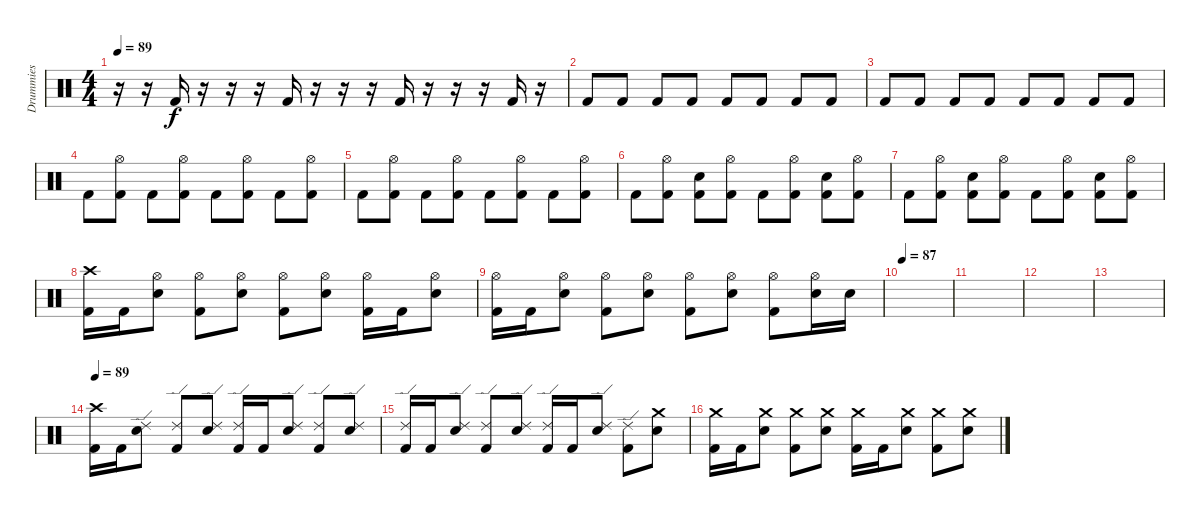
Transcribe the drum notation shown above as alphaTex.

\track ("Drummies" "Drummies") {instrument percussion}
\staff {score}
\articulation defaults
\ts (4 4)
\tempo 89
\clef neutral
\ks c
r.16{dy f} r.16 "Kick (hit) 2".16 r.16 r.16 r.16 "Kick (hit) 2".16 r.16 r.16 r.16 "Kick (hit) 2".16 r.16 r.16 r.16 "Kick (hit) 2".16 r.16 |
"Kick (hit) 2".8 "Kick (hit) 2".8 "Kick (hit) 2".8 "Kick (hit) 2".8 "Kick (hit) 2".8 "Kick (hit) 2".8 "Kick (hit) 2".8 "Kick (hit) 2".8 |
"Kick (hit) 2".8 "Kick (hit) 2".8 "Kick (hit) 2".8 "Kick (hit) 2".8 "Kick (hit) 2".8 "Kick (hit) 2".8 "Kick (hit) 2".8 "Kick (hit) 2".8 |
"Kick (hit) 2".8 ("Hi-Hat (open)" "Kick (hit) 2").8 "Kick (hit) 2".8 ("Hi-Hat (open)" "Kick (hit) 2").8 "Kick (hit) 2".8 ("Hi-Hat (open)" "Kick (hit) 2").8 "Kick (hit) 2".8 ("Hi-Hat (open)" "Kick (hit) 2").8 |
"Kick (hit) 2".8 ("Hi-Hat (open)" "Kick (hit) 2").8 "Kick (hit) 2".8 ("Hi-Hat (open)" "Kick (hit) 2").8 "Kick (hit) 2".8 ("Hi-Hat (open)" "Kick (hit) 2").8 "Kick (hit) 2".8 ("Hi-Hat (open)" "Kick (hit) 2").8 |
"Kick (hit) 2".8 ("Hi-Hat (open)" "Kick (hit) 2").8 ("Electric Snare (hit)" "Kick (hit) 2").8 ("Hi-Hat (open)" "Kick (hit) 2").8 "Kick (hit) 2".8 ("Hi-Hat (open)" "Kick (hit) 2").8 ("Electric Snare (hit)" "Kick (hit) 2").8 ("Hi-Hat (open)" "Kick (hit) 2").8 |
"Kick (hit) 2".8 ("Hi-Hat (open)" "Kick (hit) 2").8 ("Electric Snare (hit)" "Kick (hit) 2").8 ("Hi-Hat (open)" "Kick (hit) 2").8 "Kick (hit) 2".8 ("Hi-Hat (open)" "Kick (hit) 2").8 ("Electric Snare (hit)" "Kick (hit) 2").8 ("Hi-Hat (open)" "Kick (hit) 2").8 |
("Crash high (hit)" "Kick (hit) 2").16 "Kick (hit) 2".16 ("Hi-Hat (open)" "Electric Snare (hit)").8 ("Hi-Hat (open)" "Kick (hit) 2").8 ("Hi-Hat (open)" "Electric Snare (hit)").8 ("Hi-Hat (open)" "Kick (hit) 2").8 ("Hi-Hat (open)" "Electric Snare (hit)").8 ("Hi-Hat (open)" "Kick (hit) 2").16 "Kick (hit) 2".16 ("Hi-Hat (open)" "Electric Snare (hit)").8 |
("Hi-Hat (open)" "Kick (hit) 2").16 "Kick (hit) 2".16 ("Hi-Hat (open)" "Electric Snare (hit)").8 ("Hi-Hat (open)" "Kick (hit) 2").8 ("Hi-Hat (open)" "Electric Snare (hit)").8 ("Hi-Hat (open)" "Kick (hit) 2").8 ("Hi-Hat (open)" "Electric Snare (hit)").8 ("Hi-Hat (open)" "Kick (hit) 2").8 ("Hi-Hat (open)" "Electric Snare (hit)").16 "Electric Snare (hit)".16 |
\tempo 87
|
|
|
|
\tempo 89
("Crash high (hit)" "Kick (hit) 2").16 "Kick (hit) 2".16 ("Ride (edge) 2" "Electric Snare (hit)").8 ("Ride (edge) 2" "Kick (hit) 2").8 ("Ride (edge) 2" "Electric Snare (hit)").8 ("Ride (edge) 2" "Kick (hit) 2").16 "Kick (hit) 2".16 ("Ride (edge) 2" "Electric Snare (hit)").8 ("Ride (edge) 2" "Kick (hit) 2").8 ("Ride (edge) 2" "Electric Snare (hit)").8 |
("Ride (edge) 2" "Kick (hit) 2").16 "Kick (hit) 2".16 ("Ride (edge) 2" "Electric Snare (hit)").8 ("Ride (edge) 2" "Kick (hit) 2").8 ("Ride (edge) 2" "Electric Snare (hit)").8 ("Ride (edge) 2" "Kick (hit) 2").16 "Kick (hit) 2".16 ("Ride (edge) 2" "Electric Snare (hit)").8 ("Ride (edge) 2" "Kick (hit) 2").8 ("Crash medium (hit)" "Electric Snare (hit)").8 |
("Crash medium (hit)" "Kick (hit) 2").16 "Kick (hit) 2".16 ("Crash medium (hit)" "Electric Snare (hit)").8 ("Crash medium (hit)" "Kick (hit) 2").8 ("Crash medium (hit)" "Electric Snare (hit)").8 ("Crash medium (hit)" "Kick (hit) 2").16 "Kick (hit) 2".16 ("Crash medium (hit)" "Electric Snare (hit)").8 ("Crash medium (hit)" "Kick (hit) 2").8 ("Crash medium (hit)" "Electric Snare (hit)").8
